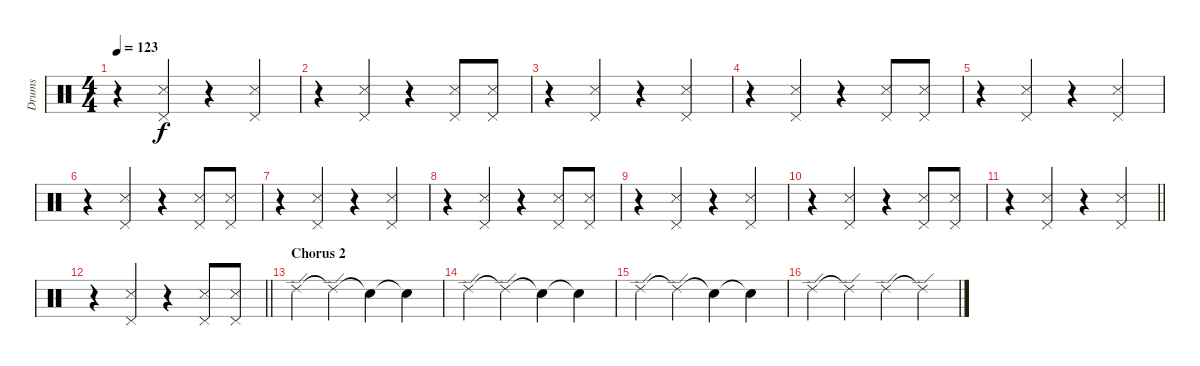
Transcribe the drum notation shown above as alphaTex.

\track ("Drums" "Drums") {instrument percussion}
\staff {score}
\articulation defaults
\ts (4 4)
\tempo 123
\clef neutral
\ks c
r.4{dy f} ("Snare (side stick) 3" "Pedal Hi-Hat (hit)").4 r.4 ("Snare (side stick) 3" "Pedal Hi-Hat (hit)").4 |
r.4 ("Snare (side stick) 3" "Pedal Hi-Hat (hit)").4 r.4 ("Snare (side stick) 3" "Pedal Hi-Hat (hit)").8 ("Snare (side stick) 3" "Pedal Hi-Hat (hit)").8 |
r.4 ("Snare (side stick) 3" "Pedal Hi-Hat (hit)").4 r.4 ("Snare (side stick) 3" "Pedal Hi-Hat (hit)").4 |
r.4 ("Snare (side stick) 3" "Pedal Hi-Hat (hit)").4 r.4 ("Snare (side stick) 3" "Pedal Hi-Hat (hit)").8 ("Snare (side stick) 3" "Pedal Hi-Hat (hit)").8 |
r.4 ("Snare (side stick) 3" "Pedal Hi-Hat (hit)").4 r.4 ("Snare (side stick) 3" "Pedal Hi-Hat (hit)").4 |
r.4 ("Snare (side stick) 3" "Pedal Hi-Hat (hit)").4 r.4 ("Snare (side stick) 3" "Pedal Hi-Hat (hit)").8 ("Snare (side stick) 3" "Pedal Hi-Hat (hit)").8 |
r.4 ("Snare (side stick) 3" "Pedal Hi-Hat (hit)").4 r.4 ("Snare (side stick) 3" "Pedal Hi-Hat (hit)").4 |
r.4 ("Snare (side stick) 3" "Pedal Hi-Hat (hit)").4 r.4 ("Snare (side stick) 3" "Pedal Hi-Hat (hit)").8 ("Snare (side stick) 3" "Pedal Hi-Hat (hit)").8 |
r.4 ("Snare (side stick) 3" "Pedal Hi-Hat (hit)").4 r.4 ("Snare (side stick) 3" "Pedal Hi-Hat (hit)").4 |
r.4 ("Snare (side stick) 3" "Pedal Hi-Hat (hit)").4 r.4 ("Snare (side stick) 3" "Pedal Hi-Hat (hit)").8 ("Snare (side stick) 3" "Pedal Hi-Hat (hit)").8 |
\barLineRight lightlight
r.4 ("Snare (side stick) 3" "Pedal Hi-Hat (hit)").4 r.4 ("Snare (side stick) 3" "Pedal Hi-Hat (hit)").4 |
\barLineRight lightlight
r.4 ("Snare (side stick) 3" "Pedal Hi-Hat (hit)").4 r.4 ("Snare (side stick) 3" "Pedal Hi-Hat (hit)").8 ("Snare (side stick) 3" "Pedal Hi-Hat (hit)").8 |
\section ("" "Chorus 2")
"Ride (edge) 2".4 "Ride (edge) 2"{t}.4 "Snare (hit)"{t}.4 "Snare (hit)"{t}.4 |
"Ride (edge) 2".4 "Ride (edge) 2"{t}.4 "Snare (hit)"{t}.4 "Snare (hit)"{t}.4 |
"Ride (edge) 2".4 "Ride (edge) 2"{t}.4 "Snare (hit)"{t}.4 "Snare (hit)"{t}.4 |
"Ride (edge) 2".4 "Ride (edge) 2"{t}.4 "Ride (edge) 2".4 "Ride (edge) 2"{t}.4
